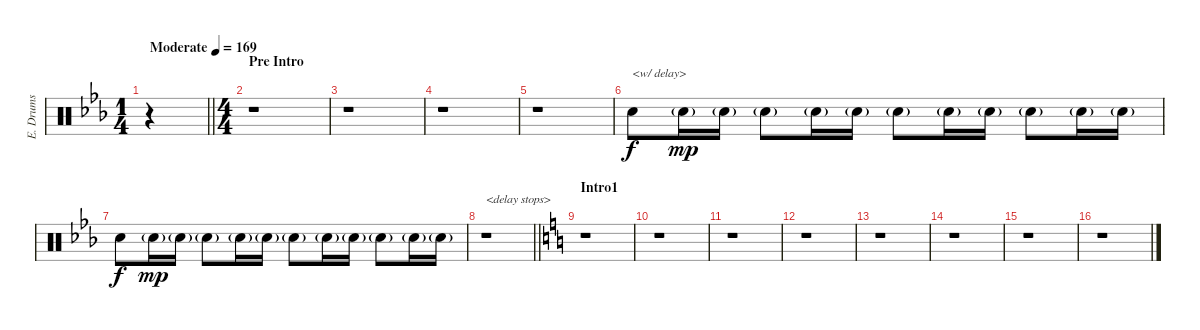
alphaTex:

\track ("E. Drums" "E. Drums") {instrument percussion}
\staff {score}
\articulation defaults
\ts (1 4)
\tempo (169 "Moderate")
\clef neutral
\barLineRight lightlight
\ks eb
r.4{dy f} |
\ts (4 4)
\section ("" "Pre Intro")
r.1 |
r.1 |
r.1 |
r.1 |
"Electric Snare (hit)".8{txt "<w/ delay>"} "Electric Snare (hit)"{g}.16{dy mp} "Electric Snare (hit)"{g}.16 "Electric Snare (hit)"{g}.8 "Electric Snare (hit)"{g}.16 "Electric Snare (hit)"{g}.16 "Electric Snare (hit)"{g}.8 "Electric Snare (hit)"{g}.16 "Electric Snare (hit)"{g}.16 "Electric Snare (hit)"{g}.8 "Electric Snare (hit)"{g}.16 "Electric Snare (hit)"{g}.16 |
"Electric Snare (hit)".8{dy f} "Electric Snare (hit)"{g}.16{dy mp} "Electric Snare (hit)"{g}.16 "Electric Snare (hit)"{g}.8 "Electric Snare (hit)"{g}.16 "Electric Snare (hit)"{g}.16 "Electric Snare (hit)"{g}.8 "Electric Snare (hit)"{g}.16 "Electric Snare (hit)"{g}.16 "Electric Snare (hit)"{g}.8 "Electric Snare (hit)"{g}.16 "Electric Snare (hit)"{g}.16 |
\barLineRight lightlight
r.1{txt "<delay stops>"} |
\section ("" "Intro1")
\ks c
r.1 |
r.1 |
r.1 |
r.1 |
r.1 |
r.1 |
r.1 |
r.1
